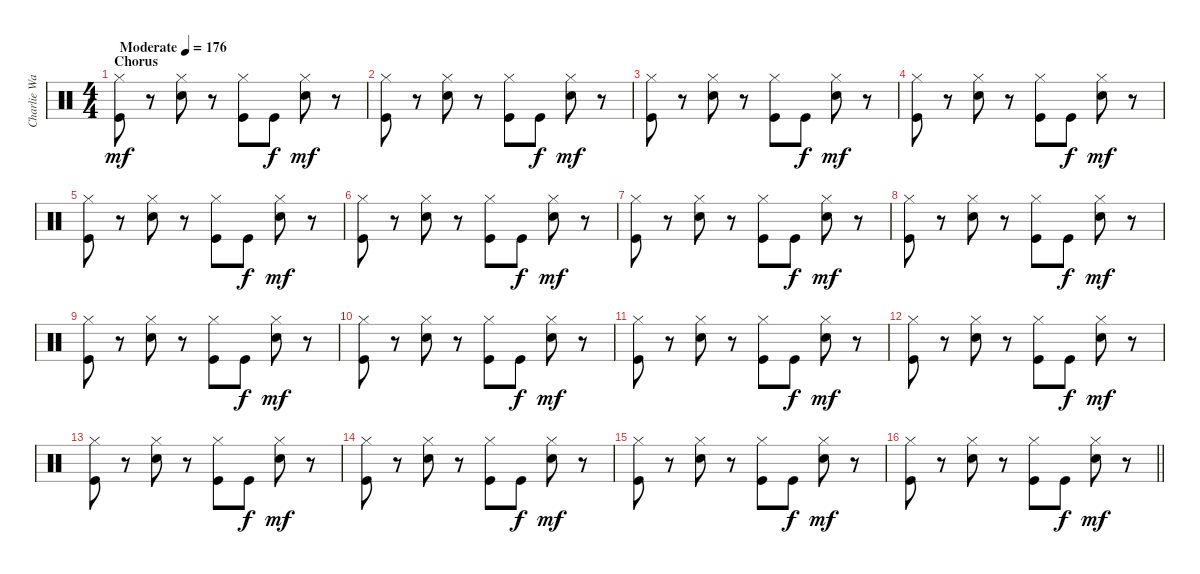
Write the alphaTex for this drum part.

\track ("Charlie Watts" "Charlie Wa") {instrument percussion}
\staff {score}
\articulation defaults
\ts (4 4)
\section ("" "Chorus")
\tempo (176 "Moderate")
\clef neutral
\ks c
("Hi-Hat (closed)" "Kick (hit)").8{dy mf} r.8 ("Hi-Hat (closed)" "Snare (hit) 2").8 r.8 ("Hi-Hat (closed)" "Kick (hit)").8 "Kick (hit)".8{dy f} ("Hi-Hat (closed)" "Snare (hit) 2").8{dy mf} r.8 |
("Hi-Hat (closed)" "Kick (hit)").8 r.8 ("Hi-Hat (closed)" "Snare (hit) 2").8 r.8 ("Hi-Hat (closed)" "Kick (hit)").8 "Kick (hit)".8{dy f} ("Hi-Hat (closed)" "Snare (hit) 2").8{dy mf} r.8 |
("Hi-Hat (closed)" "Kick (hit)").8 r.8 ("Hi-Hat (closed)" "Snare (hit) 2").8 r.8 ("Hi-Hat (closed)" "Kick (hit)").8 "Kick (hit)".8{dy f} ("Hi-Hat (closed)" "Snare (hit) 2").8{dy mf} r.8 |
("Hi-Hat (closed)" "Kick (hit)").8 r.8 ("Hi-Hat (closed)" "Snare (hit) 2").8 r.8 ("Hi-Hat (closed)" "Kick (hit)").8 "Kick (hit)".8{dy f} ("Hi-Hat (closed)" "Snare (hit) 2").8{dy mf} r.8 |
("Hi-Hat (closed)" "Kick (hit)").8 r.8 ("Hi-Hat (closed)" "Snare (hit) 2").8 r.8 ("Hi-Hat (closed)" "Kick (hit)").8 "Kick (hit)".8{dy f} ("Hi-Hat (closed)" "Snare (hit) 2").8{dy mf} r.8 |
("Hi-Hat (closed)" "Kick (hit)").8 r.8 ("Hi-Hat (closed)" "Snare (hit) 2").8 r.8 ("Hi-Hat (closed)" "Kick (hit)").8 "Kick (hit)".8{dy f} ("Hi-Hat (closed)" "Snare (hit) 2").8{dy mf} r.8 |
("Hi-Hat (closed)" "Kick (hit)").8 r.8 ("Hi-Hat (closed)" "Snare (hit) 2").8 r.8 ("Hi-Hat (closed)" "Kick (hit)").8 "Kick (hit)".8{dy f} ("Hi-Hat (closed)" "Snare (hit) 2").8{dy mf} r.8 |
("Hi-Hat (closed)" "Kick (hit)").8 r.8 ("Hi-Hat (closed)" "Snare (hit) 2").8 r.8 ("Hi-Hat (closed)" "Kick (hit)").8 "Kick (hit)".8{dy f} ("Hi-Hat (closed)" "Snare (hit) 2").8{dy mf} r.8 |
("Hi-Hat (closed)" "Kick (hit)").8 r.8 ("Hi-Hat (closed)" "Snare (hit) 2").8 r.8 ("Hi-Hat (closed)" "Kick (hit)").8 "Kick (hit)".8{dy f} ("Hi-Hat (closed)" "Snare (hit) 2").8{dy mf} r.8 |
("Hi-Hat (closed)" "Kick (hit)").8 r.8 ("Hi-Hat (closed)" "Snare (hit) 2").8 r.8 ("Hi-Hat (closed)" "Kick (hit)").8 "Kick (hit)".8{dy f} ("Hi-Hat (closed)" "Snare (hit) 2").8{dy mf} r.8 |
("Hi-Hat (closed)" "Kick (hit)").8 r.8 ("Hi-Hat (closed)" "Snare (hit) 2").8 r.8 ("Hi-Hat (closed)" "Kick (hit)").8 "Kick (hit)".8{dy f} ("Hi-Hat (closed)" "Snare (hit) 2").8{dy mf} r.8 |
("Hi-Hat (closed)" "Kick (hit)").8 r.8 ("Hi-Hat (closed)" "Snare (hit) 2").8 r.8 ("Hi-Hat (closed)" "Kick (hit)").8 "Kick (hit)".8{dy f} ("Hi-Hat (closed)" "Snare (hit) 2").8{dy mf} r.8 |
("Hi-Hat (closed)" "Kick (hit)").8 r.8 ("Hi-Hat (closed)" "Snare (hit) 2").8 r.8 ("Hi-Hat (closed)" "Kick (hit)").8 "Kick (hit)".8{dy f} ("Hi-Hat (closed)" "Snare (hit) 2").8{dy mf} r.8 |
("Hi-Hat (closed)" "Kick (hit)").8 r.8 ("Hi-Hat (closed)" "Snare (hit) 2").8 r.8 ("Hi-Hat (closed)" "Kick (hit)").8 "Kick (hit)".8{dy f} ("Hi-Hat (closed)" "Snare (hit) 2").8{dy mf} r.8 |
("Hi-Hat (closed)" "Kick (hit)").8 r.8 ("Hi-Hat (closed)" "Snare (hit) 2").8 r.8 ("Hi-Hat (closed)" "Kick (hit)").8 "Kick (hit)".8{dy f} ("Hi-Hat (closed)" "Snare (hit) 2").8{dy mf} r.8 |
\barLineRight lightlight
("Hi-Hat (closed)" "Kick (hit)").8 r.8 ("Hi-Hat (closed)" "Snare (hit) 2").8 r.8 ("Hi-Hat (closed)" "Kick (hit)").8 "Kick (hit)".8{dy f} ("Hi-Hat (closed)" "Snare (hit) 2").8{dy mf} r.8
